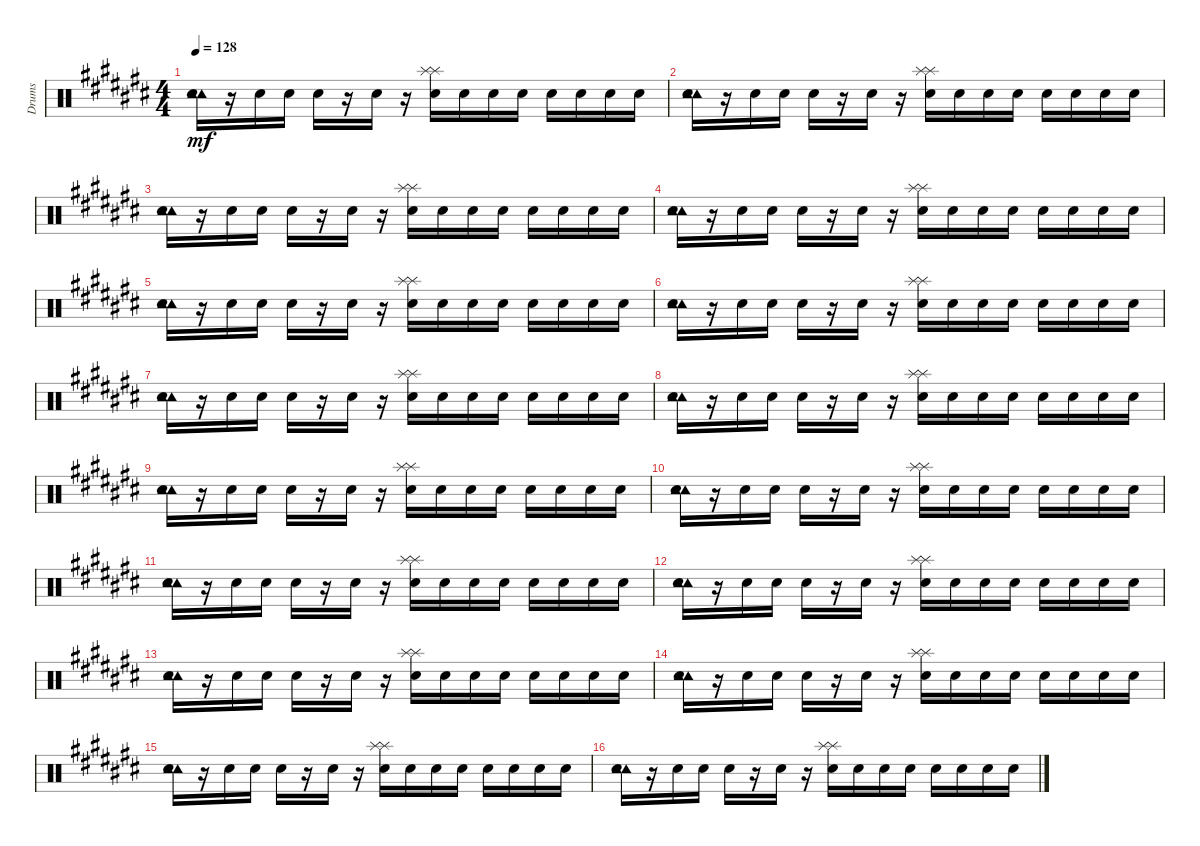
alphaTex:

\track ("Drums" "Drums") {instrument percussion}
\staff {score}
\articulation defaults
\ts (4 4)
\tempo 128
\clef neutral
\ks c#
("Tambourine (hit)" "Tambourine (hit)" "Electric Snare (hit)").16{dy mf} r.16 "Electric Snare (hit)".16 "Electric Snare (hit)".16 "Electric Snare (hit)".16 r.16 "Electric Snare (hit)".16 r.16 ("Splash (hit)" "Splash (hit)" "Electric Snare (hit)").16 "Electric Snare (hit)".16 "Electric Snare (hit)".16 "Electric Snare (hit)".16 "Electric Snare (hit)".16 "Electric Snare (hit)".16 "Electric Snare (hit)".16 "Electric Snare (hit)".16 |
("Tambourine (hit)" "Tambourine (hit)" "Electric Snare (hit)").16 r.16 "Electric Snare (hit)".16 "Electric Snare (hit)".16 "Electric Snare (hit)".16 r.16 "Electric Snare (hit)".16 r.16 ("Splash (hit)" "Splash (hit)" "Electric Snare (hit)").16 "Electric Snare (hit)".16 "Electric Snare (hit)".16 "Electric Snare (hit)".16 "Electric Snare (hit)".16 "Electric Snare (hit)".16 "Electric Snare (hit)".16 "Electric Snare (hit)".16 |
("Tambourine (hit)" "Tambourine (hit)" "Electric Snare (hit)").16 r.16 "Electric Snare (hit)".16 "Electric Snare (hit)".16 "Electric Snare (hit)".16 r.16 "Electric Snare (hit)".16 r.16 ("Splash (hit)" "Splash (hit)" "Electric Snare (hit)").16 "Electric Snare (hit)".16 "Electric Snare (hit)".16 "Electric Snare (hit)".16 "Electric Snare (hit)".16 "Electric Snare (hit)".16 "Electric Snare (hit)".16 "Electric Snare (hit)".16 |
("Tambourine (hit)" "Tambourine (hit)" "Electric Snare (hit)").16 r.16 "Electric Snare (hit)".16 "Electric Snare (hit)".16 "Electric Snare (hit)".16 r.16 "Electric Snare (hit)".16 r.16 ("Splash (hit)" "Splash (hit)" "Electric Snare (hit)").16 "Electric Snare (hit)".16 "Electric Snare (hit)".16 "Electric Snare (hit)".16 "Electric Snare (hit)".16 "Electric Snare (hit)".16 "Electric Snare (hit)".16 "Electric Snare (hit)".16 |
("Tambourine (hit)" "Tambourine (hit)" "Electric Snare (hit)").16 r.16 "Electric Snare (hit)".16 "Electric Snare (hit)".16 "Electric Snare (hit)".16 r.16 "Electric Snare (hit)".16 r.16 ("Splash (hit)" "Splash (hit)" "Electric Snare (hit)").16 "Electric Snare (hit)".16 "Electric Snare (hit)".16 "Electric Snare (hit)".16 "Electric Snare (hit)".16 "Electric Snare (hit)".16 "Electric Snare (hit)".16 "Electric Snare (hit)".16 |
("Tambourine (hit)" "Tambourine (hit)" "Electric Snare (hit)").16 r.16 "Electric Snare (hit)".16 "Electric Snare (hit)".16 "Electric Snare (hit)".16 r.16 "Electric Snare (hit)".16 r.16 ("Splash (hit)" "Splash (hit)" "Electric Snare (hit)").16 "Electric Snare (hit)".16 "Electric Snare (hit)".16 "Electric Snare (hit)".16 "Electric Snare (hit)".16 "Electric Snare (hit)".16 "Electric Snare (hit)".16 "Electric Snare (hit)".16 |
("Tambourine (hit)" "Tambourine (hit)" "Electric Snare (hit)").16 r.16 "Electric Snare (hit)".16 "Electric Snare (hit)".16 "Electric Snare (hit)".16 r.16 "Electric Snare (hit)".16 r.16 ("Splash (hit)" "Splash (hit)" "Electric Snare (hit)").16 "Electric Snare (hit)".16 "Electric Snare (hit)".16 "Electric Snare (hit)".16 "Electric Snare (hit)".16 "Electric Snare (hit)".16 "Electric Snare (hit)".16 "Electric Snare (hit)".16 |
("Tambourine (hit)" "Tambourine (hit)" "Electric Snare (hit)").16 r.16 "Electric Snare (hit)".16 "Electric Snare (hit)".16 "Electric Snare (hit)".16 r.16 "Electric Snare (hit)".16 r.16 ("Splash (hit)" "Splash (hit)" "Electric Snare (hit)").16 "Electric Snare (hit)".16 "Electric Snare (hit)".16 "Electric Snare (hit)".16 "Electric Snare (hit)".16 "Electric Snare (hit)".16 "Electric Snare (hit)".16 "Electric Snare (hit)".16 |
("Tambourine (hit)" "Tambourine (hit)" "Electric Snare (hit)").16 r.16 "Electric Snare (hit)".16 "Electric Snare (hit)".16 "Electric Snare (hit)".16 r.16 "Electric Snare (hit)".16 r.16 ("Splash (hit)" "Splash (hit)" "Electric Snare (hit)").16 "Electric Snare (hit)".16 "Electric Snare (hit)".16 "Electric Snare (hit)".16 "Electric Snare (hit)".16 "Electric Snare (hit)".16 "Electric Snare (hit)".16 "Electric Snare (hit)".16 |
("Tambourine (hit)" "Tambourine (hit)" "Electric Snare (hit)").16 r.16 "Electric Snare (hit)".16 "Electric Snare (hit)".16 "Electric Snare (hit)".16 r.16 "Electric Snare (hit)".16 r.16 ("Splash (hit)" "Splash (hit)" "Electric Snare (hit)").16 "Electric Snare (hit)".16 "Electric Snare (hit)".16 "Electric Snare (hit)".16 "Electric Snare (hit)".16 "Electric Snare (hit)".16 "Electric Snare (hit)".16 "Electric Snare (hit)".16 |
("Tambourine (hit)" "Tambourine (hit)" "Electric Snare (hit)").16 r.16 "Electric Snare (hit)".16 "Electric Snare (hit)".16 "Electric Snare (hit)".16 r.16 "Electric Snare (hit)".16 r.16 ("Splash (hit)" "Splash (hit)" "Electric Snare (hit)").16 "Electric Snare (hit)".16 "Electric Snare (hit)".16 "Electric Snare (hit)".16 "Electric Snare (hit)".16 "Electric Snare (hit)".16 "Electric Snare (hit)".16 "Electric Snare (hit)".16 |
("Tambourine (hit)" "Tambourine (hit)" "Electric Snare (hit)").16 r.16 "Electric Snare (hit)".16 "Electric Snare (hit)".16 "Electric Snare (hit)".16 r.16 "Electric Snare (hit)".16 r.16 ("Splash (hit)" "Splash (hit)" "Electric Snare (hit)").16 "Electric Snare (hit)".16 "Electric Snare (hit)".16 "Electric Snare (hit)".16 "Electric Snare (hit)".16 "Electric Snare (hit)".16 "Electric Snare (hit)".16 "Electric Snare (hit)".16 |
("Tambourine (hit)" "Tambourine (hit)" "Electric Snare (hit)").16 r.16 "Electric Snare (hit)".16 "Electric Snare (hit)".16 "Electric Snare (hit)".16 r.16 "Electric Snare (hit)".16 r.16 ("Splash (hit)" "Splash (hit)" "Electric Snare (hit)").16 "Electric Snare (hit)".16 "Electric Snare (hit)".16 "Electric Snare (hit)".16 "Electric Snare (hit)".16 "Electric Snare (hit)".16 "Electric Snare (hit)".16 "Electric Snare (hit)".16 |
("Tambourine (hit)" "Tambourine (hit)" "Electric Snare (hit)").16 r.16 "Electric Snare (hit)".16 "Electric Snare (hit)".16 "Electric Snare (hit)".16 r.16 "Electric Snare (hit)".16 r.16 ("Splash (hit)" "Splash (hit)" "Electric Snare (hit)").16 "Electric Snare (hit)".16 "Electric Snare (hit)".16 "Electric Snare (hit)".16 "Electric Snare (hit)".16 "Electric Snare (hit)".16 "Electric Snare (hit)".16 "Electric Snare (hit)".16 |
("Tambourine (hit)" "Tambourine (hit)" "Electric Snare (hit)").16 r.16 "Electric Snare (hit)".16 "Electric Snare (hit)".16 "Electric Snare (hit)".16 r.16 "Electric Snare (hit)".16 r.16 ("Splash (hit)" "Splash (hit)" "Electric Snare (hit)").16 "Electric Snare (hit)".16 "Electric Snare (hit)".16 "Electric Snare (hit)".16 "Electric Snare (hit)".16 "Electric Snare (hit)".16 "Electric Snare (hit)".16 "Electric Snare (hit)".16 |
("Tambourine (hit)" "Tambourine (hit)" "Electric Snare (hit)").16 r.16 "Electric Snare (hit)".16 "Electric Snare (hit)".16 "Electric Snare (hit)".16 r.16 "Electric Snare (hit)".16 r.16 ("Splash (hit)" "Splash (hit)" "Electric Snare (hit)").16 "Electric Snare (hit)".16 "Electric Snare (hit)".16 "Electric Snare (hit)".16 "Electric Snare (hit)".16 "Electric Snare (hit)".16 "Electric Snare (hit)".16 "Electric Snare (hit)".16
